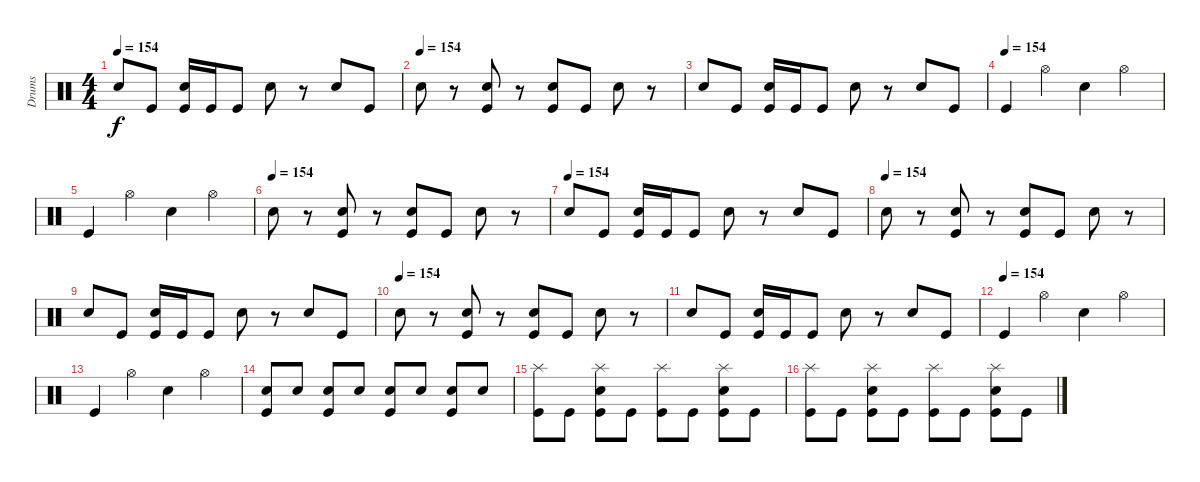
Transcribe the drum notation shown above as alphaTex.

\track ("Drums" "Drums") {instrument percussion}
\staff {score}
\articulation defaults
\ts (4 4)
\tempo 154
\clef neutral
\ks c "Snare (hit) 2".8{dy f} "Kick (hit)".8
("Snare (hit) 2" "Kick (hit)").16 "Kick (hit)".16 "Kick (hit)".8 "Snare (hit) 2".8 r.8 "Snare (hit) 2".8 "Kick (hit)".8 |
\tempo (154)
"Snare (hit) 2".8 r.8 ("Kick (hit)" "Snare (hit) 2").8 r.8 ("Kick (hit)" "Snare (hit) 2").8 "Kick (hit)".8 "Snare (hit) 2".8 r.8 |
"Snare (hit) 2".8 "Kick (hit)".8 ("Snare (hit) 2" "Kick (hit)").16 "Kick (hit)".16 "Kick (hit)".8 "Snare (hit) 2".8 r.8 "Snare (hit) 2".8 "Kick (hit)".8 |
\tempo (154)
"Kick (hit)".4 "Hi-Hat (open)".4 "Snare (hit) 2".4 "Hi-Hat (open)".4 |
"Kick (hit)".4 "Hi-Hat (open)".4 "Snare (hit) 2".4 "Hi-Hat (open)".4 |
\tempo (154)
"Snare (hit) 2".8 r.8 ("Kick (hit)" "Snare (hit) 2").8 r.8 ("Kick (hit)" "Snare (hit) 2").8 "Kick (hit)".8 "Snare (hit) 2".8 r.8 |
\tempo (154)
"Snare (hit) 2".8 "Kick (hit)".8 ("Snare (hit) 2" "Kick (hit)").16 "Kick (hit)".16 "Kick (hit)".8 "Snare (hit) 2".8 r.8 "Snare (hit) 2".8 "Kick (hit)".8 |
\tempo (154)
"Snare (hit) 2".8 r.8 ("Kick (hit)" "Snare (hit) 2").8 r.8 ("Kick (hit)" "Snare (hit) 2").8 "Kick (hit)".8 "Snare (hit) 2".8 r.8 |
"Snare (hit) 2".8 "Kick (hit)".8 ("Snare (hit) 2" "Kick (hit)").16 "Kick (hit)".16 "Kick (hit)".8 "Snare (hit) 2".8 r.8 "Snare (hit) 2".8 "Kick (hit)".8 |
\tempo (154)
"Snare (hit) 2".8 r.8 ("Kick (hit)" "Snare (hit) 2").8 r.8 ("Kick (hit)" "Snare (hit) 2").8 "Kick (hit)".8 "Snare (hit) 2".8 r.8 |
"Snare (hit) 2".8 "Kick (hit)".8 ("Snare (hit) 2" "Kick (hit)").16 "Kick (hit)".16 "Kick (hit)".8 "Snare (hit) 2".8 r.8 "Snare (hit) 2".8 "Kick (hit)".8 |
\tempo (154)
"Kick (hit)".4 "Hi-Hat (open)".4 "Snare (hit) 2".4 "Hi-Hat (open)".4 |
"Kick (hit)".4 "Hi-Hat (open)".4 "Snare (hit) 2".4 "Hi-Hat (open)".4 |
("Kick (hit)" "Snare (hit) 2").8 "Snare (hit) 2".8 ("Kick (hit)" "Snare (hit) 2").8 "Snare (hit) 2".8 ("Kick (hit)" "Snare (hit) 2").8 "Snare (hit) 2".8 ("Kick (hit)" "Snare (hit) 2").8 "Snare (hit) 2".8 |
("Splash (hit)" "Kick (hit)").8 "Kick (hit)".8 ("Splash (hit)" "Snare (hit) 2" "Kick (hit)").8 "Kick (hit)".8 ("Splash (hit)" "Kick (hit)").8 "Kick (hit)".8 ("Splash (hit)" "Snare (hit) 2" "Kick (hit)").8 "Kick (hit)".8 |
("Splash (hit)" "Kick (hit)").8 "Kick (hit)".8 ("Splash (hit)" "Snare (hit) 2" "Kick (hit)").8 "Kick (hit)".8 ("Splash (hit)" "Kick (hit)").8 "Kick (hit)".8 ("Splash (hit)" "Snare (hit) 2" "Kick (hit)").8 "Kick (hit)".8
